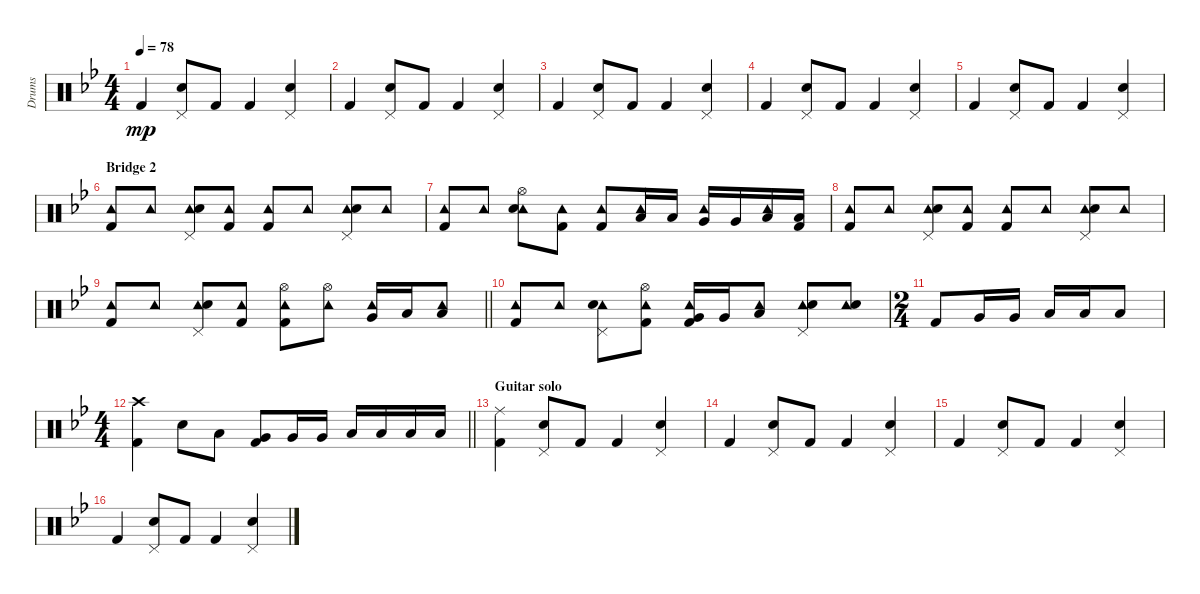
\track ("Drums" "Drums") {instrument percussion}
\staff {score}
\articulation defaults
\ts (4 4)
\tempo 78
\clef neutral
\ks bb "Kick (hit) 2".4{dy mp}
("Pedal Hi-Hat (hit)" "Snare (hit) 2").8 "Kick (hit) 2".8 "Kick (hit) 2".4 ("Pedal Hi-Hat (hit)" "Snare (hit) 2").4 |
"Kick (hit) 2".4 ("Pedal Hi-Hat (hit)" "Snare (hit) 2").8 "Kick (hit) 2".8 "Kick (hit) 2".4 ("Pedal Hi-Hat (hit)" "Snare (hit) 2").4 |
"Kick (hit) 2".4 ("Pedal Hi-Hat (hit)" "Snare (hit) 2").8 "Kick (hit) 2".8 "Kick (hit) 2".4 ("Pedal Hi-Hat (hit)" "Snare (hit) 2").4 |
"Kick (hit) 2".4 ("Pedal Hi-Hat (hit)" "Snare (hit) 2").8 "Kick (hit) 2".8 "Kick (hit) 2".4 ("Pedal Hi-Hat (hit)" "Snare (hit) 2").4 |
"Kick (hit) 2".4 ("Pedal Hi-Hat (hit)" "Snare (hit) 2").8 "Kick (hit) 2".8 "Kick (hit) 2".4 ("Pedal Hi-Hat (hit)" "Snare (hit) 2").4 |
\section ("" "Bridge 2")
("Tambourine (hit)" "Kick (hit) 2").8 "Tambourine (hit)".8 ("Tambourine (hit)" "Pedal Hi-Hat (hit)" "Snare (hit) 2").8 ("Tambourine (hit)" "Kick (hit) 2").8 ("Tambourine (hit)" "Kick (hit) 2").8 "Tambourine (hit)".8 ("Tambourine (hit)" "Pedal Hi-Hat (hit)" "Snare (hit) 2").8 "Tambourine (hit)".8 |
("Tambourine (hit)" "Kick (hit) 2").8 "Tambourine (hit)".8 ("Tambourine (hit)" "Hi-Hat (open)" "Snare (hit) 2").8 ("Tambourine (hit)" "Kick (hit) 2").8 ("Tambourine (hit)" "Kick (hit) 2").8 ("Tambourine (hit)" "Low Tom (hit)").16 "Low Tom (hit)".16 ("Tambourine (hit)" "Very Low Tom (hit)").16 "Very Low Tom (hit)".16 ("Tambourine (hit)" "Low Floor Tom (hit)").16 ("Low Floor Tom (hit)" "Kick (hit) 2").16 |
("Tambourine (hit)" "Kick (hit) 2").8 "Tambourine (hit)".8 ("Tambourine (hit)" "Pedal Hi-Hat (hit)" "Snare (hit) 2").8 ("Tambourine (hit)" "Kick (hit) 2").8 ("Tambourine (hit)" "Kick (hit) 2").8 "Tambourine (hit)".8 ("Tambourine (hit)" "Pedal Hi-Hat (hit)" "Snare (hit) 2").8 "Tambourine (hit)".8 |
\barLineRight lightlight
("Tambourine (hit)" "Kick (hit) 2").8 "Tambourine (hit)".8 ("Tambourine (hit)" "Pedal Hi-Hat (hit)" "Snare (hit) 2").8 ("Tambourine (hit)" "Kick (hit) 2").8 ("Tambourine (hit)" "Hi-Hat (open)" "Kick (hit) 2").8 ("Tambourine (hit)" "Hi-Hat (open)").8 ("Tambourine (hit)" "Very Low Tom (hit)").16 "Low Floor Tom (hit)".16 ("Tambourine (hit)" "Low Floor Tom (hit)").8 |
("Tambourine (hit)" "Kick (hit) 2").8 "Tambourine (hit)".8 ("Tambourine (hit)" "Pedal Hi-Hat (hit)" "Snare (hit) 2").8 ("Tambourine (hit)" "Hi-Hat (open)" "Kick (hit) 2").8 ("Tambourine (hit)" "Very Low Tom (hit)" "Kick (hit) 2").16 "Very Low Tom (hit)".16 ("Tambourine (hit)" "Low Floor Tom (hit)").8 ("Tambourine (hit)" "Pedal Hi-Hat (hit)" "Snare (hit) 2").8 ("Tambourine (hit)" "Snare (hit) 2").8 |
\ts (2 4)
"Kick (hit) 2".8 "Very Low Tom (hit)".16 "Very Low Tom (hit)".16 "Low Floor Tom (hit)".16 "Low Floor Tom (hit)".16 "Low Floor Tom (hit)".8 |
\ts (4 4)
\barLineRight lightlight
("Crash high (hit)" "Kick (hit) 2").4 "Snare (hit) 2".8 "Low Tom (hit)".8 ("Very Low Tom (hit)" "Kick (hit) 2").8 "Very Low Tom (hit)".16 "Very Low Tom (hit)".16 "Low Floor Tom (hit)".16 "Low Floor Tom (hit)".16 "Low Floor Tom (hit)".16 "Low Floor Tom (hit)".16 |
\section ("" "Guitar solo")
("Ride (middle)" "Kick (hit) 2").4 ("Pedal Hi-Hat (hit)" "Snare (hit) 2").8 "Kick (hit) 2".8 "Kick (hit) 2".4 ("Pedal Hi-Hat (hit)" "Snare (hit) 2").4 |
"Kick (hit) 2".4 ("Pedal Hi-Hat (hit)" "Snare (hit) 2").8 "Kick (hit) 2".8 "Kick (hit) 2".4 ("Pedal Hi-Hat (hit)" "Snare (hit) 2").4 |
"Kick (hit) 2".4 ("Pedal Hi-Hat (hit)" "Snare (hit) 2").8 "Kick (hit) 2".8 "Kick (hit) 2".4 ("Pedal Hi-Hat (hit)" "Snare (hit) 2").4 |
"Kick (hit) 2".4 ("Pedal Hi-Hat (hit)" "Snare (hit) 2").8 "Kick (hit) 2".8 "Kick (hit) 2".4 ("Pedal Hi-Hat (hit)" "Snare (hit) 2").4
